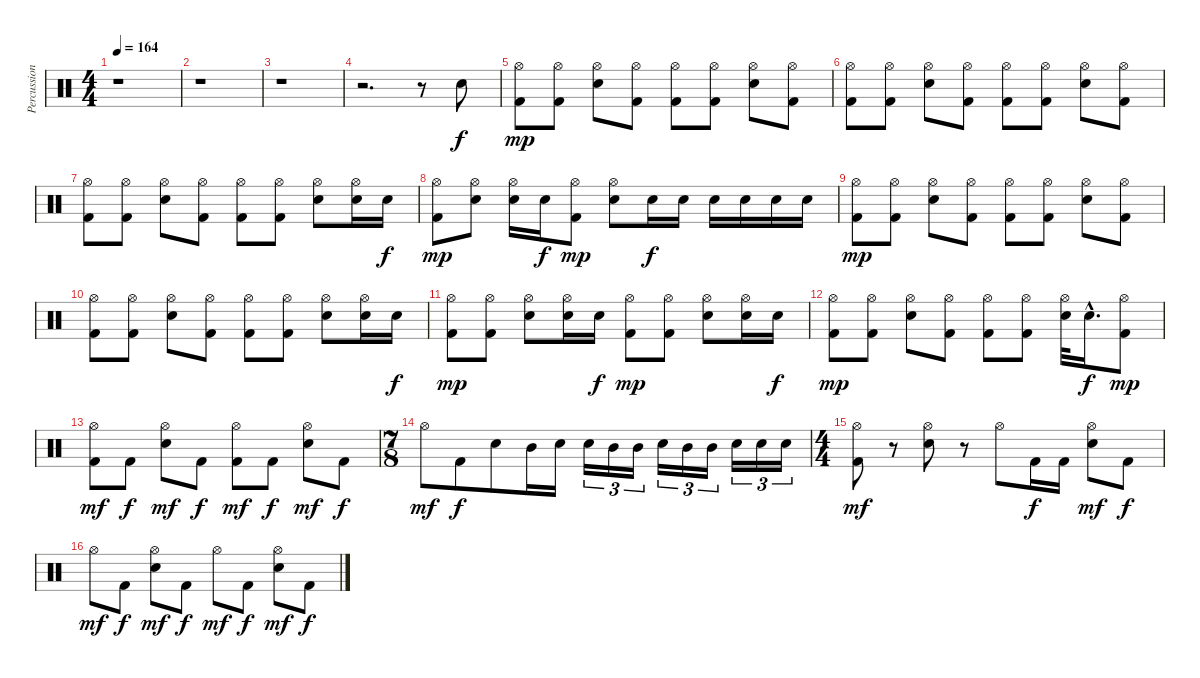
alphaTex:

\track ("Percussion" "Percussion") {instrument percussion}
\staff {score}
\articulation defaults
\ts (4 4)
\tempo 164
\clef neutral
\ks c
r.1{dy f} |
r.1 |
r.1 |
r.2{d} r.8 "Electric Snare (hit)".8 |
("Hi-Hat (open)" "Kick (hit) 2").8{dy mp} ("Hi-Hat (open)" "Kick (hit) 2").8 ("Hi-Hat (open)" "Electric Snare (hit)").8 ("Hi-Hat (open)" "Kick (hit) 2").8 ("Hi-Hat (open)" "Kick (hit) 2").8 ("Hi-Hat (open)" "Kick (hit) 2").8 ("Hi-Hat (open)" "Electric Snare (hit)").8 ("Hi-Hat (open)" "Kick (hit) 2").8 |
("Hi-Hat (open)" "Kick (hit) 2").8 ("Hi-Hat (open)" "Kick (hit) 2").8 ("Hi-Hat (open)" "Electric Snare (hit)").8 ("Hi-Hat (open)" "Kick (hit) 2").8 ("Hi-Hat (open)" "Kick (hit) 2").8 ("Hi-Hat (open)" "Kick (hit) 2").8 ("Hi-Hat (open)" "Electric Snare (hit)").8 ("Hi-Hat (open)" "Kick (hit) 2").8 |
("Hi-Hat (open)" "Kick (hit) 2").8 ("Hi-Hat (open)" "Kick (hit) 2").8 ("Hi-Hat (open)" "Electric Snare (hit)").8 ("Hi-Hat (open)" "Kick (hit) 2").8 ("Hi-Hat (open)" "Kick (hit) 2").8 ("Hi-Hat (open)" "Kick (hit) 2").8 ("Hi-Hat (open)" "Electric Snare (hit)").8 ("Hi-Hat (open)" "Electric Snare (hit)").16 "Electric Snare (hit)".16{dy f} |
("Hi-Hat (open)" "Kick (hit) 2").8{dy mp} ("Hi-Hat (open)" "Electric Snare (hit)").8 ("Hi-Hat (open)" "Electric Snare (hit)").16 "Electric Snare (hit)".16{dy f} ("Hi-Hat (open)" "Kick (hit) 2").8{dy mp} ("Hi-Hat (open)" "Electric Snare (hit)").8 "Electric Snare (hit)".16{dy f} "Electric Snare (hit)".16 "Electric Snare (hit)".16 "Electric Snare (hit)".16 "Electric Snare (hit)".16 "Electric Snare (hit)".16 |
("Hi-Hat (open)" "Kick (hit) 2").8{dy mp} ("Hi-Hat (open)" "Kick (hit) 2").8 ("Hi-Hat (open)" "Electric Snare (hit)").8 ("Hi-Hat (open)" "Kick (hit) 2").8 ("Hi-Hat (open)" "Kick (hit) 2").8 ("Hi-Hat (open)" "Kick (hit) 2").8 ("Hi-Hat (open)" "Electric Snare (hit)").8 ("Hi-Hat (open)" "Kick (hit) 2").8 |
("Hi-Hat (open)" "Kick (hit) 2").8 ("Hi-Hat (open)" "Kick (hit) 2").8 ("Hi-Hat (open)" "Electric Snare (hit)").8 ("Hi-Hat (open)" "Kick (hit) 2").8 ("Hi-Hat (open)" "Kick (hit) 2").8 ("Hi-Hat (open)" "Kick (hit) 2").8 ("Hi-Hat (open)" "Electric Snare (hit)").8 ("Hi-Hat (open)" "Electric Snare (hit)").16 "Electric Snare (hit)".16{dy f} |
("Hi-Hat (open)" "Kick (hit) 2").8{dy mp} ("Hi-Hat (open)" "Kick (hit) 2").8 ("Hi-Hat (open)" "Electric Snare (hit)").8 ("Hi-Hat (open)" "Electric Snare (hit)").16 "Electric Snare (hit)".16{dy f} ("Hi-Hat (open)" "Kick (hit) 2").8{dy mp} ("Hi-Hat (open)" "Kick (hit) 2").8 ("Hi-Hat (open)" "Electric Snare (hit)").8 ("Hi-Hat (open)" "Electric Snare (hit)").16 "Electric Snare (hit)".16{dy f} |
("Hi-Hat (open)" "Kick (hit) 2").8{dy mp} ("Hi-Hat (open)" "Kick (hit) 2").8 ("Hi-Hat (open)" "Electric Snare (hit)").8 ("Hi-Hat (open)" "Kick (hit) 2").8 ("Hi-Hat (open)" "Kick (hit) 2").8 ("Hi-Hat (open)" "Kick (hit) 2").8 ("Hi-Hat (open)" "Electric Snare (hit)").32 "Electric Snare (hit)"{hac}.16{d dy f} ("Hi-Hat (open)" "Kick (hit) 2").8{dy mp} |
("Hi-Hat (open)" "Kick (hit) 2").8{dy mf} "Kick (hit) 2".8{dy f} ("Hi-Hat (open)" "Electric Snare (hit)").8{dy mf} "Kick (hit) 2".8{dy f} ("Hi-Hat (open)" "Kick (hit) 2").8{dy mf} "Kick (hit) 2".8{dy f} ("Hi-Hat (open)" "Electric Snare (hit)").8{dy mf} "Kick (hit) 2".8{dy f} |
\ts (7 8)
"Hi-Hat (open)".8{dy mf} "Kick (hit) 2".8{dy f} "Electric Snare (hit)".8 "Mid Tom (hit)".16 "Electric Snare (hit)".16 "Electric Snare (hit)".16{tu (3 2)} "Mid Tom (hit)".16{tu (3 2)} "Mid Tom (hit)".16{tu (3 2)} "Electric Snare (hit)".16{tu (3 2)} "Mid Tom (hit)".16{tu (3 2)} "Mid Tom (hit)".16{tu (3 2)} "Electric Snare (hit)".16{tu (3 2)} "Electric Snare (hit)".16{tu (3 2)} "Electric Snare (hit)".16{tu (3 2)} |
\ts (4 4)
("Hi-Hat (open)" "Kick (hit) 2").8{dy mf} r.8 ("Hi-Hat (open)" "Electric Snare (hit)").8 r.8 "Hi-Hat (open)".8 "Kick (hit) 2".16{dy f} "Kick (hit) 2".16 ("Hi-Hat (open)" "Electric Snare (hit)").8{dy mf} "Kick (hit) 2".8{dy f} |
"Hi-Hat (open)".8{dy mf} "Kick (hit) 2".8{dy f} ("Hi-Hat (open)" "Electric Snare (hit)").8{dy mf} "Kick (hit) 2".8{dy f} "Hi-Hat (open)".8{dy mf} "Kick (hit) 2".8{dy f} ("Hi-Hat (open)" "Electric Snare (hit)").8{dy mf} "Kick (hit) 2".8{dy f}
